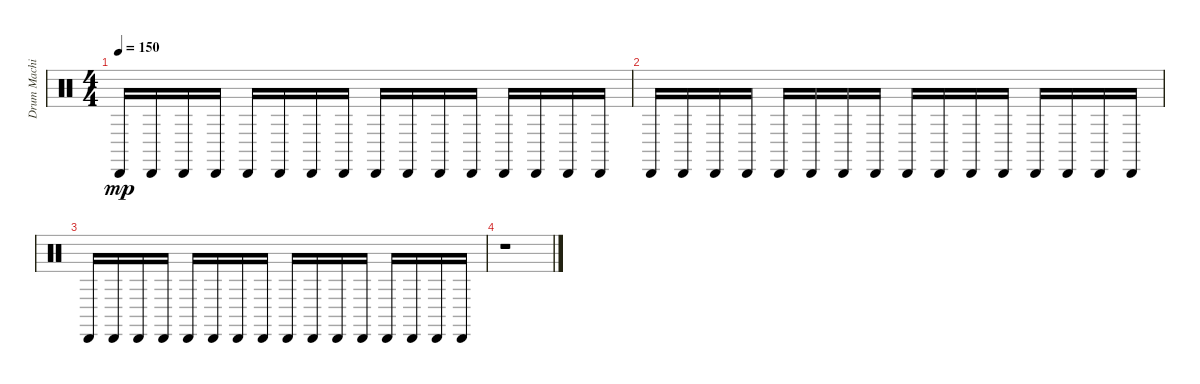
\track ("Drum Machine" "Drum Machi") {instrument percussion}
\staff {score}
\articulation defaults
\ts (4 4)
\tempo 150
\clef neutral
\ks c "Cabasa (hit)".16{dy mp} "Cabasa (hit)".16 "Cabasa (hit)".16 "Cabasa (hit)".16 "Cabasa (hit)".16 "Cabasa (hit)".16 "Cabasa (hit)".16 "Cabasa (hit)".16 "Cabasa (hit)".16 "Cabasa (hit)".16 "Cabasa (hit)".16 "Cabasa (hit)".16 "Cabasa (hit)".16 "Cabasa (hit)".16 "Cabasa (hit)".16 "Cabasa (hit)".16
|
"Cabasa (hit)".16 "Cabasa (hit)".16 "Cabasa (hit)".16 "Cabasa (hit)".16 "Cabasa (hit)".16 "Cabasa (hit)".16 "Cabasa (hit)".16 "Cabasa (hit)".16 "Cabasa (hit)".16 "Cabasa (hit)".16 "Cabasa (hit)".16 "Cabasa (hit)".16 "Cabasa (hit)".16 "Cabasa (hit)".16 "Cabasa (hit)".16 "Cabasa (hit)".16 |
"Cabasa (hit)".16 "Cabasa (hit)".16 "Cabasa (hit)".16 "Cabasa (hit)".16 "Cabasa (hit)".16 "Cabasa (hit)".16 "Cabasa (hit)".16 "Cabasa (hit)".16 "Cabasa (hit)".16 "Cabasa (hit)".16 "Cabasa (hit)".16 "Cabasa (hit)".16 "Cabasa (hit)".16 "Cabasa (hit)".16 "Cabasa (hit)".16 "Cabasa (hit)".16 |
r.1
